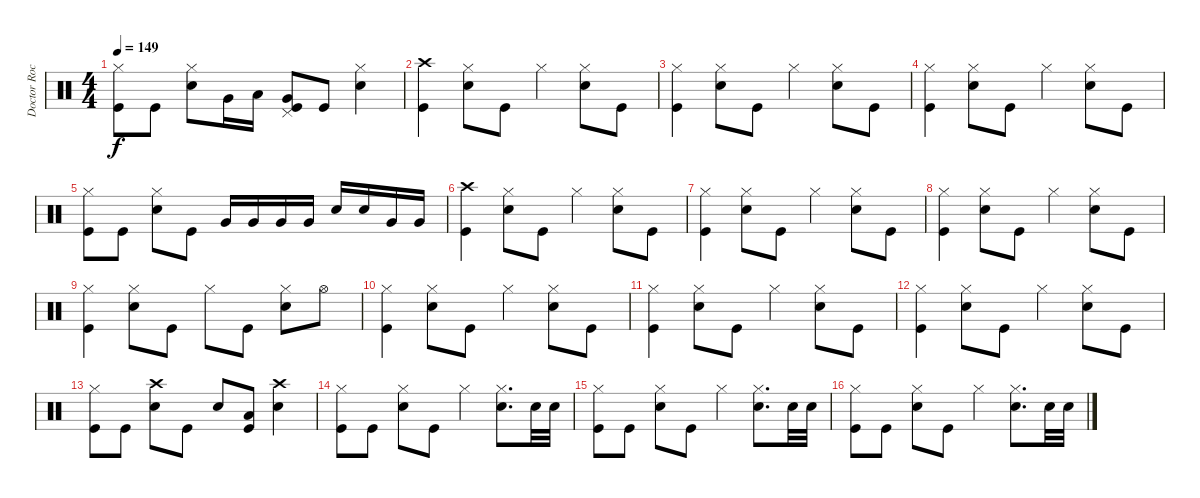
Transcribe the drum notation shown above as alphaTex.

\track ("Doctor Rock" "Doctor Roc") {instrument percussion}
\staff {score}
\articulation defaults
\ts (4 4)
\tempo 149
\clef neutral
\ks c
("Hi-Hat (closed)" "Kick (hit)").8{dy f} "Kick (hit)".8 ("Hi-Hat (closed)" "Snare (hit) 2").8 "Very Low Tom (hit)".16 "Low Tom (hit)".16 ("Kick (hit)" "Very Low Tom (hit)" "Pedal Hi-Hat (hit)").8 "Kick (hit)".8 ("Hi-Hat (closed)" "Snare (hit) 2").4 |
("Crash high (hit)" "Kick (hit)").4 ("Hi-Hat (closed)" "Snare (hit) 2").8 "Kick (hit)".8 "Hi-Hat (closed)".4 ("Hi-Hat (closed)" "Snare (hit) 2").8 "Kick (hit)".8 |
("Hi-Hat (closed)" "Kick (hit)").4 ("Hi-Hat (closed)" "Snare (hit) 2").8 "Kick (hit)".8 "Hi-Hat (closed)".4 ("Hi-Hat (closed)" "Snare (hit) 2").8 "Kick (hit)".8 |
("Hi-Hat (closed)" "Kick (hit)").4 ("Hi-Hat (closed)" "Snare (hit) 2").8 "Kick (hit)".8 "Hi-Hat (closed)".4 ("Hi-Hat (closed)" "Snare (hit) 2").8 "Kick (hit)".8 |
("Hi-Hat (closed)" "Kick (hit)").8 "Kick (hit)".8 ("Hi-Hat (closed)" "Snare (hit) 2").8 "Kick (hit)".8 "Very Low Tom (hit)".16 "Very Low Tom (hit)".16 "Very Low Tom (hit)".16 "Very Low Tom (hit)".16 "Snare (hit) 2".16 "Snare (hit) 2".16 "Very Low Tom (hit)".16 "Very Low Tom (hit)".16 |
("Crash high (hit)" "Kick (hit)").4 ("Hi-Hat (closed)" "Snare (hit) 2").8 "Kick (hit)".8 "Hi-Hat (closed)".4 ("Hi-Hat (closed)" "Snare (hit) 2").8 "Kick (hit)".8 |
("Hi-Hat (closed)" "Kick (hit)").4 ("Hi-Hat (closed)" "Snare (hit) 2").8 "Kick (hit)".8 "Hi-Hat (closed)".4 ("Hi-Hat (closed)" "Snare (hit) 2").8 "Kick (hit)".8 |
("Hi-Hat (closed)" "Kick (hit)").4 ("Hi-Hat (closed)" "Snare (hit) 2").8 "Kick (hit)".8 "Hi-Hat (closed)".4 ("Hi-Hat (closed)" "Snare (hit) 2").8 "Kick (hit)".8 |
("Hi-Hat (closed)" "Kick (hit)").4 ("Hi-Hat (closed)" "Snare (hit) 2").8 "Kick (hit)".8 "Hi-Hat (closed)".8 "Kick (hit)".8 ("Hi-Hat (closed)" "Snare (hit) 2").8 "Hi-Hat (open)".8 |
("Hi-Hat (closed)" "Kick (hit)").4 ("Hi-Hat (closed)" "Snare (hit) 2").8 "Kick (hit)".8 "Hi-Hat (closed)".4 ("Hi-Hat (closed)" "Snare (hit) 2").8 "Kick (hit)".8 |
("Hi-Hat (closed)" "Kick (hit)").4 ("Hi-Hat (closed)" "Snare (hit) 2").8 "Kick (hit)".8 "Hi-Hat (closed)".4 ("Hi-Hat (closed)" "Snare (hit) 2").8 "Kick (hit)".8 |
("Hi-Hat (closed)" "Kick (hit)").4 ("Hi-Hat (closed)" "Snare (hit) 2").8 "Kick (hit)".8 "Hi-Hat (closed)".4 ("Hi-Hat (closed)" "Snare (hit) 2").8 "Kick (hit)".8 |
("Hi-Hat (closed)" "Kick (hit)").8 "Kick (hit)".8 ("Crash high (hit)" "Snare (hit) 2").8 "Kick (hit)".8 "Snare (hit) 2".8 ("Kick (hit)" "Low Tom (hit)").8 ("Crash high (hit)" "Snare (hit) 2").4 |
("Hi-Hat (closed)" "Kick (hit)").8 "Kick (hit)".8 ("Hi-Hat (closed)" "Snare (hit) 2").8 "Kick (hit)".8 "Hi-Hat (closed)".4 ("Hi-Hat (closed)" "Snare (hit) 2").8{d} "Snare (hit) 2".32 "Snare (hit) 2".32 |
("Hi-Hat (closed)" "Kick (hit)").8 "Kick (hit)".8 ("Hi-Hat (closed)" "Snare (hit) 2").8 "Kick (hit)".8 "Hi-Hat (closed)".4 ("Hi-Hat (closed)" "Snare (hit) 2").8{d} "Snare (hit) 2".32 "Snare (hit) 2".32 |
("Hi-Hat (closed)" "Kick (hit)").8 "Kick (hit)".8 ("Hi-Hat (closed)" "Snare (hit) 2").8 "Kick (hit)".8 "Hi-Hat (closed)".4 ("Hi-Hat (closed)" "Snare (hit) 2").8{d} "Snare (hit) 2".32 "Snare (hit) 2".32
